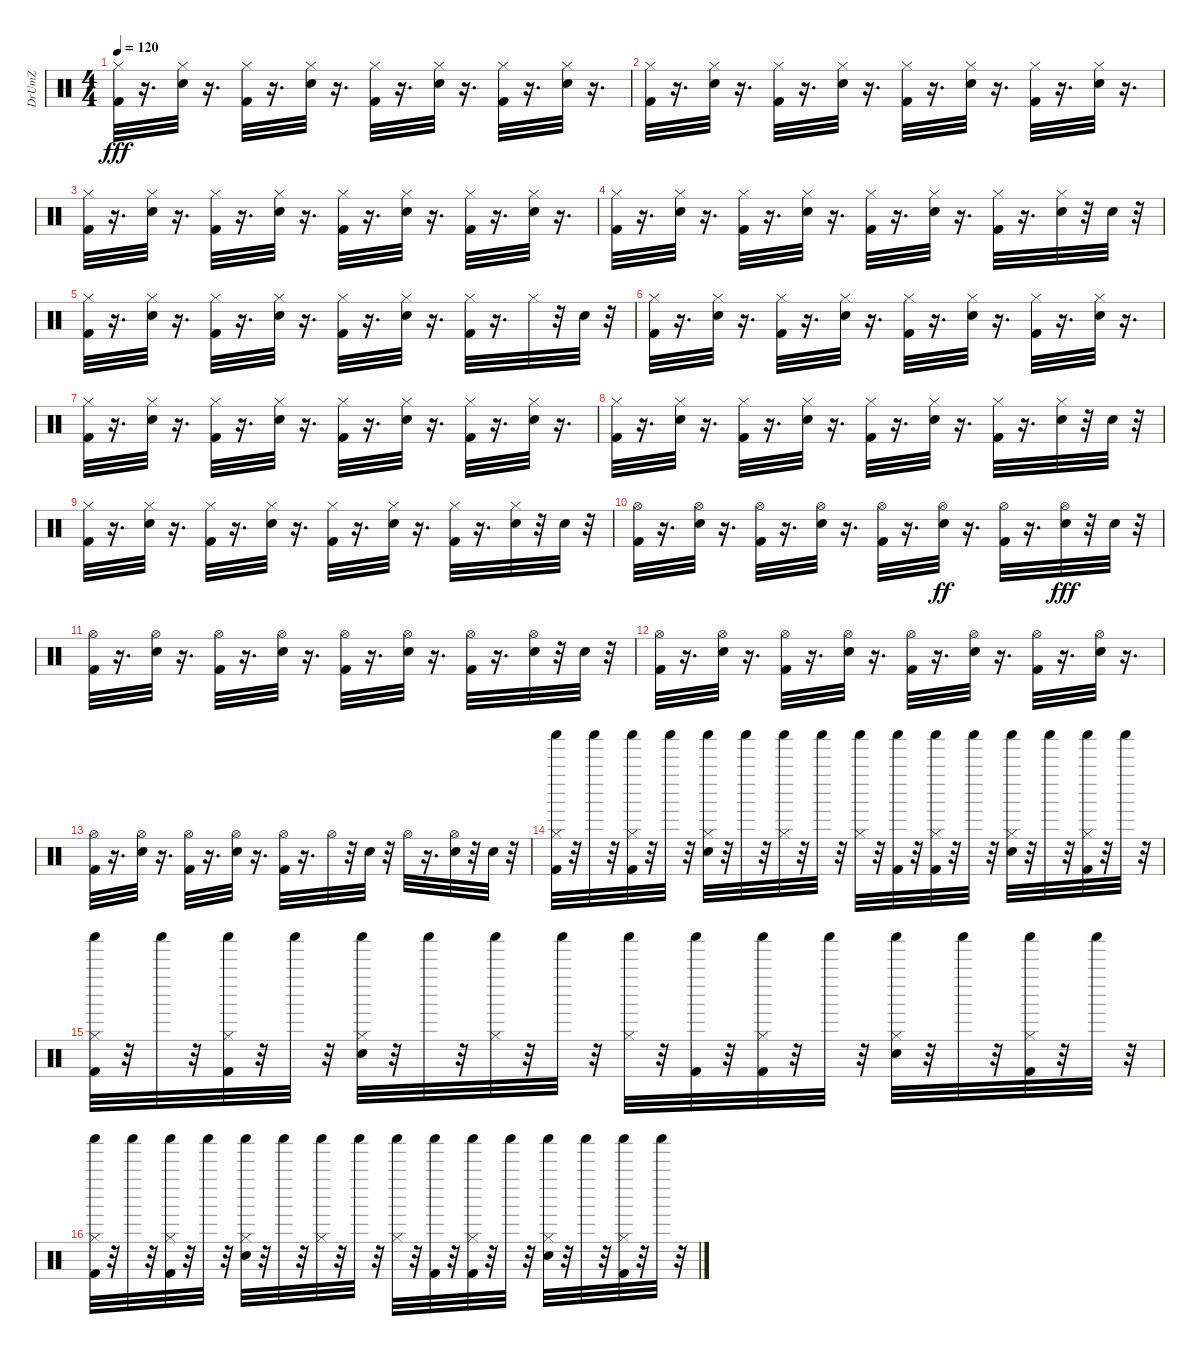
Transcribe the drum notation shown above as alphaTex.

\track ("DrUmZ" "DrUmZ") {instrument percussion}
\staff {score}
\articulation defaults
\ts (4 4)
\tempo 120
\clef neutral
\ks c
("Hi-Hat (closed)" "Kick (hit) 2").32{dy fff} r.16{d} ("Electric Snare (hit)" "Hi-Hat (closed)").32 r.16{d} ("Kick (hit) 2" "Hi-Hat (closed)").32 r.16{d} ("Electric Snare (hit)" "Hi-Hat (closed)").32 r.16{d} ("Hi-Hat (closed)" "Kick (hit) 2").32 r.16{d} ("Electric Snare (hit)" "Hi-Hat (closed)").32 r.16{d} ("Kick (hit) 2" "Hi-Hat (closed)").32 r.16{d} ("Electric Snare (hit)" "Hi-Hat (closed)").32 r.16{d} |
("Kick (hit) 2" "Hi-Hat (closed)").32 r.16{d} ("Electric Snare (hit)" "Hi-Hat (closed)").32 r.16{d} ("Kick (hit) 2" "Hi-Hat (closed)").32 r.16{d} ("Electric Snare (hit)" "Hi-Hat (closed)").32 r.16{d} ("Hi-Hat (closed)" "Kick (hit) 2").32 r.16{d} ("Electric Snare (hit)" "Hi-Hat (closed)").32 r.16{d} ("Kick (hit) 2" "Hi-Hat (closed)").32 r.16{d} ("Electric Snare (hit)" "Hi-Hat (closed)").32 r.16{d} |
("Kick (hit) 2" "Hi-Hat (closed)").32 r.16{d} ("Electric Snare (hit)" "Hi-Hat (closed)").32 r.16{d} ("Kick (hit) 2" "Hi-Hat (closed)").32 r.16{d} ("Electric Snare (hit)" "Hi-Hat (closed)").32 r.16{d} ("Hi-Hat (closed)" "Kick (hit) 2").32 r.16{d} ("Electric Snare (hit)" "Hi-Hat (closed)").32 r.16{d} ("Kick (hit) 2" "Hi-Hat (closed)").32 r.16{d} ("Electric Snare (hit)" "Hi-Hat (closed)").32 r.16{d} |
("Hi-Hat (closed)" "Kick (hit) 2").32 r.16{d} ("Electric Snare (hit)" "Hi-Hat (closed)").32 r.16{d} ("Kick (hit) 2" "Hi-Hat (closed)").32 r.16{d} ("Electric Snare (hit)" "Hi-Hat (closed)").32 r.16{d} ("Hi-Hat (closed)" "Kick (hit) 2").32 r.16{d} ("Electric Snare (hit)" "Hi-Hat (closed)").32 r.16{d} ("Kick (hit) 2" "Hi-Hat (closed)").32 r.16{d} ("Electric Snare (hit)" "Hi-Hat (closed)").32 r.32 "Electric Snare (hit)".32 r.32 |
("Kick (hit) 2" "Hi-Hat (closed)").32 r.16{d} ("Electric Snare (hit)" "Hi-Hat (closed)").32 r.16{d} ("Kick (hit) 2" "Hi-Hat (closed)").32 r.16{d} ("Electric Snare (hit)" "Hi-Hat (closed)").32 r.16{d} ("Hi-Hat (closed)" "Kick (hit) 2").32 r.16{d} ("Electric Snare (hit)" "Hi-Hat (closed)").32 r.16{d} ("Kick (hit) 2" "Hi-Hat (closed)").32 r.16{d} "Hi-Hat (closed)".32 r.32 "Electric Snare (hit)".32 r.32 |
("Kick (hit) 2" "Hi-Hat (closed)").32 r.16{d} ("Electric Snare (hit)" "Hi-Hat (closed)").32 r.16{d} ("Kick (hit) 2" "Hi-Hat (closed)").32 r.16{d} ("Electric Snare (hit)" "Hi-Hat (closed)").32 r.16{d} ("Hi-Hat (closed)" "Kick (hit) 2").32 r.16{d} ("Electric Snare (hit)" "Hi-Hat (closed)").32 r.16{d} ("Kick (hit) 2" "Hi-Hat (closed)").32 r.16{d} ("Electric Snare (hit)" "Hi-Hat (closed)").32 r.16{d} |
("Hi-Hat (closed)" "Kick (hit) 2").32 r.16{d} ("Electric Snare (hit)" "Hi-Hat (closed)").32 r.16{d} ("Kick (hit) 2" "Hi-Hat (closed)").32 r.16{d} ("Electric Snare (hit)" "Hi-Hat (closed)").32 r.16{d} ("Hi-Hat (closed)" "Kick (hit) 2").32 r.16{d} ("Electric Snare (hit)" "Hi-Hat (closed)").32 r.16{d} ("Kick (hit) 2" "Hi-Hat (closed)").32 r.16{d} ("Electric Snare (hit)" "Hi-Hat (closed)").32 r.16{d} |
("Kick (hit) 2" "Hi-Hat (closed)").32 r.16{d} ("Electric Snare (hit)" "Hi-Hat (closed)").32 r.16{d} ("Kick (hit) 2" "Hi-Hat (closed)").32 r.16{d} ("Electric Snare (hit)" "Hi-Hat (closed)").32 r.16{d} ("Hi-Hat (closed)" "Kick (hit) 2").32 r.16{d} ("Electric Snare (hit)" "Hi-Hat (closed)").32 r.16{d} ("Kick (hit) 2" "Hi-Hat (closed)").32 r.16{d} ("Electric Snare (hit)" "Hi-Hat (closed)").32 r.32 "Electric Snare (hit)".32 r.32 |
("Hi-Hat (closed)" "Kick (hit) 2").32 r.16{d} ("Electric Snare (hit)" "Hi-Hat (closed)").32 r.16{d} ("Kick (hit) 2" "Hi-Hat (closed)").32 r.16{d} ("Electric Snare (hit)" "Hi-Hat (closed)").32 r.16{d} ("Hi-Hat (closed)" "Kick (hit) 2").32 r.16{d} ("Electric Snare (hit)" "Hi-Hat (closed)").32 r.16{d} ("Kick (hit) 2" "Hi-Hat (closed)").32 r.16{d} ("Electric Snare (hit)" "Hi-Hat (closed)").32 r.32 "Electric Snare (hit)".32 r.32 |
("Kick (hit) 2" "Hi-Hat (open)").32 r.16{d} ("Electric Snare (hit)" "Hi-Hat (open)").32 r.16{d} ("Kick (hit) 2" "Hi-Hat (open)").32 r.16{d} ("Electric Snare (hit)" "Hi-Hat (open)").32 r.16{d} ("Kick (hit) 2" "Hi-Hat (open)").32 r.16{d} ("Electric Snare (hit)" "Hi-Hat (open)").32{dy ff} r.16{d} ("Kick (hit) 2" "Hi-Hat (open)").32 r.16{d} ("Electric Snare (hit)" "Hi-Hat (open)").32{dy fff} r.32 "Electric Snare (hit)".32 r.32 |
("Kick (hit) 2" "Hi-Hat (open)").32 r.16{d} ("Electric Snare (hit)" "Hi-Hat (open)").32 r.16{d} ("Kick (hit) 2" "Hi-Hat (open)").32 r.16{d} ("Electric Snare (hit)" "Hi-Hat (open)").32 r.16{d} ("Kick (hit) 2" "Hi-Hat (open)").32 r.16{d} ("Electric Snare (hit)" "Hi-Hat (open)").32 r.16{d} ("Kick (hit) 2" "Hi-Hat (open)").32 r.16{d} ("Electric Snare (hit)" "Hi-Hat (open)").32 r.32 "Electric Snare (hit)".32 r.32 |
("Kick (hit) 2" "Hi-Hat (open)").32 r.16{d} ("Electric Snare (hit)" "Hi-Hat (open)").32 r.16{d} ("Kick (hit) 2" "Hi-Hat (open)").32 r.16{d} ("Electric Snare (hit)" "Hi-Hat (open)").32 r.16{d} ("Kick (hit) 2" "Hi-Hat (open)").32 r.16{d} ("Electric Snare (hit)" "Hi-Hat (open)").32 r.16{d} ("Kick (hit) 2" "Hi-Hat (open)").32 r.16{d} ("Electric Snare (hit)" "Hi-Hat (open)").32 r.16{d} |
("Kick (hit) 2" "Hi-Hat (open)").32 r.16{d} ("Electric Snare (hit)" "Hi-Hat (open)").32 r.16{d} ("Kick (hit) 2" "Hi-Hat (open)").32 r.16{d} ("Electric Snare (hit)" "Hi-Hat (open)").32 r.16{d} ("Kick (hit) 2" "Hi-Hat (open)").32 r.16{d} "Hi-Hat (open)".32 r.32 "Electric Snare (hit)".32 r.32 "Hi-Hat (open)".32 r.16{d} ("Electric Snare (hit)" "Hi-Hat (open)").32 r.32 "Electric Snare (hit)".32 r.32 |
("Shaker (hit)" "Kick (hit) 2" "Hi-Hat (closed)").32 r.32 "Shaker (hit)".32 r.32 ("Shaker (hit)" "Kick (hit) 2" "Hi-Hat (closed)").32 r.32 "Shaker (hit)".32 r.32 ("Shaker (hit)" "Electric Snare (hit)" "Hi-Hat (closed)").32 r.32 "Shaker (hit)".32 r.32 ("Shaker (hit)" "Hi-Hat (closed)").32 r.32 "Shaker (hit)".32 r.32 ("Shaker (hit)" "Hi-Hat (closed)").32 r.32 ("Shaker (hit)" "Kick (hit) 2").32 r.32 ("Shaker (hit)" "Kick (hit) 2" "Hi-Hat (closed)").32 r.32 "Shaker (hit)".32 r.32 ("Shaker (hit)" "Electric Snare (hit)" "Hi-Hat (closed)").32 r.32 "Shaker (hit)".32 r.32 ("Shaker (hit)" "Kick (hit) 2" "Hi-Hat (closed)").32 r.32 "Shaker (hit)".32 r.32 |
("Hi-Hat (closed)" "Kick (hit) 2" "Shaker (hit)").32 r.32 "Shaker (hit)".32 r.32 ("Shaker (hit)" "Kick (hit) 2" "Hi-Hat (closed)").32 r.32 "Shaker (hit)".32 r.32 ("Shaker (hit)" "Electric Snare (hit)" "Hi-Hat (closed)").32 r.32 "Shaker (hit)".32 r.32 ("Shaker (hit)" "Hi-Hat (closed)").32 r.32 "Shaker (hit)".32 r.32 ("Shaker (hit)" "Hi-Hat (closed)").32 r.32 ("Shaker (hit)" "Kick (hit) 2").32 r.32 ("Shaker (hit)" "Kick (hit) 2" "Hi-Hat (closed)").32 r.32 "Shaker (hit)".32 r.32 ("Shaker (hit)" "Electric Snare (hit)" "Hi-Hat (closed)").32 r.32 "Shaker (hit)".32 r.32 ("Shaker (hit)" "Kick (hit) 2" "Hi-Hat (closed)").32 r.32 "Shaker (hit)".32 r.32 |
("Hi-Hat (closed)" "Kick (hit) 2" "Shaker (hit)").32 r.32 "Shaker (hit)".32 r.32 ("Shaker (hit)" "Kick (hit) 2" "Hi-Hat (closed)").32 r.32 "Shaker (hit)".32 r.32 ("Shaker (hit)" "Electric Snare (hit)" "Hi-Hat (closed)").32 r.32 "Shaker (hit)".32 r.32 ("Shaker (hit)" "Hi-Hat (closed)").32 r.32 "Shaker (hit)".32 r.32 ("Shaker (hit)" "Hi-Hat (closed)").32 r.32 ("Shaker (hit)" "Kick (hit) 2").32 r.32 ("Shaker (hit)" "Kick (hit) 2" "Hi-Hat (closed)").32 r.32 "Shaker (hit)".32 r.32 ("Shaker (hit)" "Electric Snare (hit)" "Hi-Hat (closed)").32 r.32 "Shaker (hit)".32 r.32 ("Shaker (hit)" "Kick (hit) 2" "Hi-Hat (closed)").32 r.32 "Shaker (hit)".32 r.32
